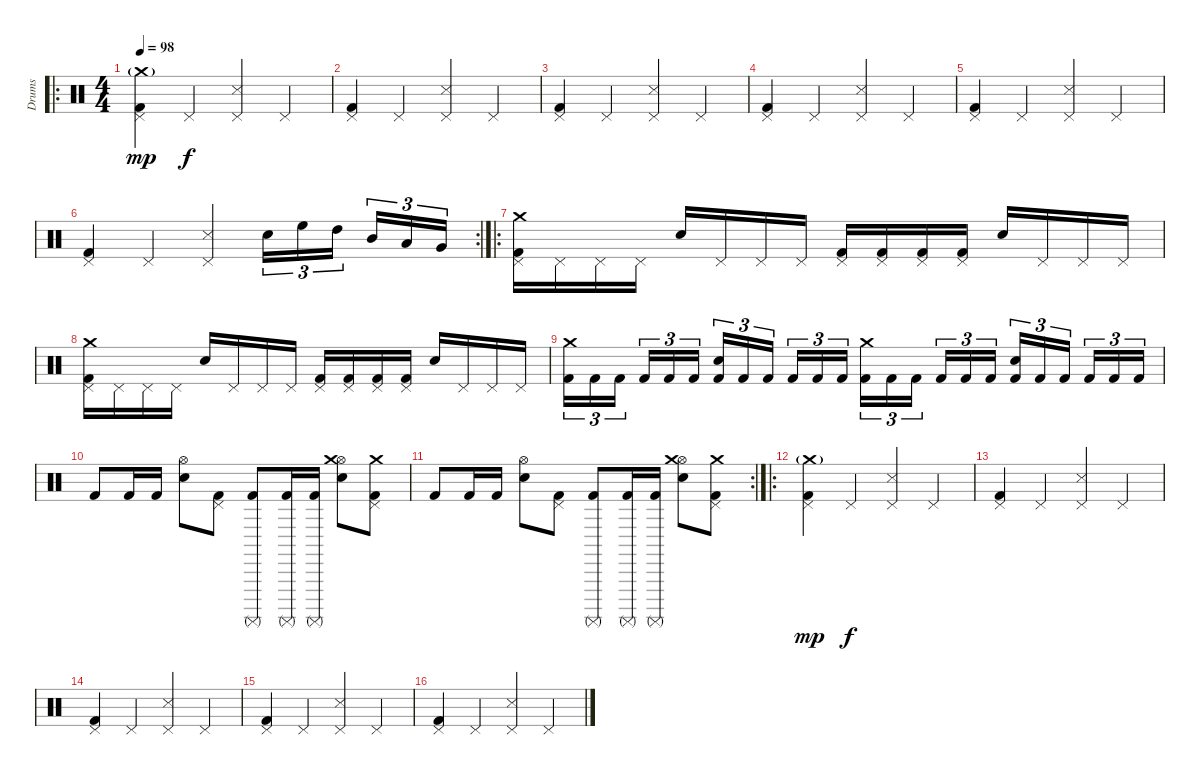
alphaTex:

\track ("Drums" "Drums") {instrument percussion}
\staff {score}
\articulation defaults
\ro
\ts (4 4)
\tempo 98
\clef neutral
\ks c
("Crash medium (hit)"{g} "Pedal Hi-Hat (hit)" "Kick (hit) 2").4{dy mp} "Pedal Hi-Hat (hit)".4{dy f} ("Pedal Hi-Hat (hit)" "Metronome (hit)").4 "Pedal Hi-Hat (hit)".4 |
("Pedal Hi-Hat (hit)" "Kick (hit) 2").4 "Pedal Hi-Hat (hit)".4 ("Pedal Hi-Hat (hit)" "Metronome (hit)").4 "Pedal Hi-Hat (hit)".4 |
("Pedal Hi-Hat (hit)" "Kick (hit) 2").4 "Pedal Hi-Hat (hit)".4 ("Pedal Hi-Hat (hit)" "Metronome (hit)").4 "Pedal Hi-Hat (hit)".4 |
("Pedal Hi-Hat (hit)" "Kick (hit) 2").4 "Pedal Hi-Hat (hit)".4 ("Pedal Hi-Hat (hit)" "Metronome (hit)").4 "Pedal Hi-Hat (hit)".4 |
("Pedal Hi-Hat (hit)" "Kick (hit) 2").4 "Pedal Hi-Hat (hit)".4 ("Pedal Hi-Hat (hit)" "Metronome (hit)").4 "Pedal Hi-Hat (hit)".4 |
\rc 2
("Pedal Hi-Hat (hit)" "Kick (hit) 2").4 "Pedal Hi-Hat (hit)".4 ("Pedal Hi-Hat (hit)" "Metronome (hit)").4 "Electric Snare (hit)".16{tu (3 2)} "High Floor Tom (hit)".16{tu (3 2)} "High Tom (hit)".16{tu (3 2)} "Mid Tom (hit)".16{tu (3 2)} "Low Tom (hit)".16{tu (3 2)} "Very Low Tom (hit)".16{tu (3 2)} |
\ro
("Crash medium (hit)" "Kick (hit) 2" "Pedal Hi-Hat (hit)").16 "Pedal Hi-Hat (hit)".16 "Pedal Hi-Hat (hit)".16 "Pedal Hi-Hat (hit)".16 "Electric Snare (hit)".16 "Pedal Hi-Hat (hit)".16 "Pedal Hi-Hat (hit)".16 "Pedal Hi-Hat (hit)".16 ("Kick (hit) 2" "Pedal Hi-Hat (hit)").16 ("Kick (hit) 2" "Pedal Hi-Hat (hit)").16 ("Kick (hit) 2" "Pedal Hi-Hat (hit)").16 ("Kick (hit) 2" "Pedal Hi-Hat (hit)").16 "Electric Snare (hit)".16 "Pedal Hi-Hat (hit)".16 "Pedal Hi-Hat (hit)".16 "Pedal Hi-Hat (hit)".16 |
("Crash medium (hit)" "Kick (hit) 2" "Pedal Hi-Hat (hit)").16 "Pedal Hi-Hat (hit)".16 "Pedal Hi-Hat (hit)".16 "Pedal Hi-Hat (hit)".16 "Electric Snare (hit)".16 "Pedal Hi-Hat (hit)".16 "Pedal Hi-Hat (hit)".16 "Pedal Hi-Hat (hit)".16 ("Kick (hit) 2" "Pedal Hi-Hat (hit)").16 ("Kick (hit) 2" "Pedal Hi-Hat (hit)").16 ("Kick (hit) 2" "Pedal Hi-Hat (hit)").16 ("Kick (hit) 2" "Pedal Hi-Hat (hit)").16 "Electric Snare (hit)".16 "Pedal Hi-Hat (hit)".16 "Pedal Hi-Hat (hit)".16 "Pedal Hi-Hat (hit)".16 |
("Kick (hit) 2" "Crash medium (hit)").16{tu (3 2)} "Kick (hit) 2".16{tu (3 2)} "Kick (hit) 2".16{tu (3 2)} "Kick (hit) 2".16{tu (3 2)} "Kick (hit) 2".16{tu (3 2)} "Kick (hit) 2".16{tu (3 2)} ("Kick (hit) 2" "Electric Snare (hit)").16{tu (3 2)} "Kick (hit) 2".16{tu (3 2)} "Kick (hit) 2".16{tu (3 2)} "Kick (hit) 2".16{tu (3 2)} "Kick (hit) 2".16{tu (3 2)} "Kick (hit) 2".16{tu (3 2)} ("Kick (hit) 2" "Crash medium (hit)").16{tu (3 2)} "Kick (hit) 2".16{tu (3 2)} "Kick (hit) 2".16{tu (3 2)} "Kick (hit) 2".16{tu (3 2)} "Kick (hit) 2".16{tu (3 2)} "Kick (hit) 2".16{tu (3 2)} ("Kick (hit) 2" "Electric Snare (hit)").16{tu (3 2)} "Kick (hit) 2".16{tu (3 2)} "Kick (hit) 2".16{tu (3 2)} "Kick (hit) 2".16{tu (3 2)} "Kick (hit) 2".16{tu (3 2)} "Kick (hit) 2".16{tu (3 2)} |
"Kick (hit) 2".8 "Kick (hit) 2".16 "Kick (hit) 2".16 ("Hi-Hat (open)" "Electric Snare (hit)").8 ("Kick (hit) 2" "Pedal Hi-Hat (hit)").8 ("Kick (hit) 2" "Surdo (mute)").8 ("Kick (hit) 2" "Surdo (mute)").16 ("Kick (hit) 2" "Surdo (mute)").16 ("Hi-Hat (open)" "Electric Snare (hit)" "Crash medium (hit)").8 ("Kick (hit) 2" "Pedal Hi-Hat (hit)" "Crash medium (hit)").8 |
\rc 2 "Kick (hit) 2".8 "Kick (hit) 2".16 "Kick (hit) 2".16
("Hi-Hat (open)" "Electric Snare (hit)").8 ("Kick (hit) 2" "Pedal Hi-Hat (hit)").8 ("Kick (hit) 2" "Surdo (mute)").8 ("Kick (hit) 2" "Surdo (mute)").16 ("Kick (hit) 2" "Surdo (mute)").16 ("Hi-Hat (open)" "Electric Snare (hit)" "Crash medium (hit)").8 ("Kick (hit) 2" "Pedal Hi-Hat (hit)" "Crash medium (hit)").8 |
\ro
("Crash medium (hit)"{g} "Pedal Hi-Hat (hit)" "Kick (hit) 2").4{dy mp} "Pedal Hi-Hat (hit)".4{dy f} ("Pedal Hi-Hat (hit)" "Metronome (hit)").4 "Pedal Hi-Hat (hit)".4 |
("Pedal Hi-Hat (hit)" "Kick (hit) 2").4 "Pedal Hi-Hat (hit)".4 ("Pedal Hi-Hat (hit)" "Metronome (hit)").4 "Pedal Hi-Hat (hit)".4 |
("Pedal Hi-Hat (hit)" "Kick (hit) 2").4 "Pedal Hi-Hat (hit)".4 ("Pedal Hi-Hat (hit)" "Metronome (hit)").4 "Pedal Hi-Hat (hit)".4 |
("Pedal Hi-Hat (hit)" "Kick (hit) 2").4 "Pedal Hi-Hat (hit)".4 ("Pedal Hi-Hat (hit)" "Metronome (hit)").4 "Pedal Hi-Hat (hit)".4 |
("Pedal Hi-Hat (hit)" "Kick (hit) 2").4 "Pedal Hi-Hat (hit)".4 ("Pedal Hi-Hat (hit)" "Metronome (hit)").4 "Pedal Hi-Hat (hit)".4
